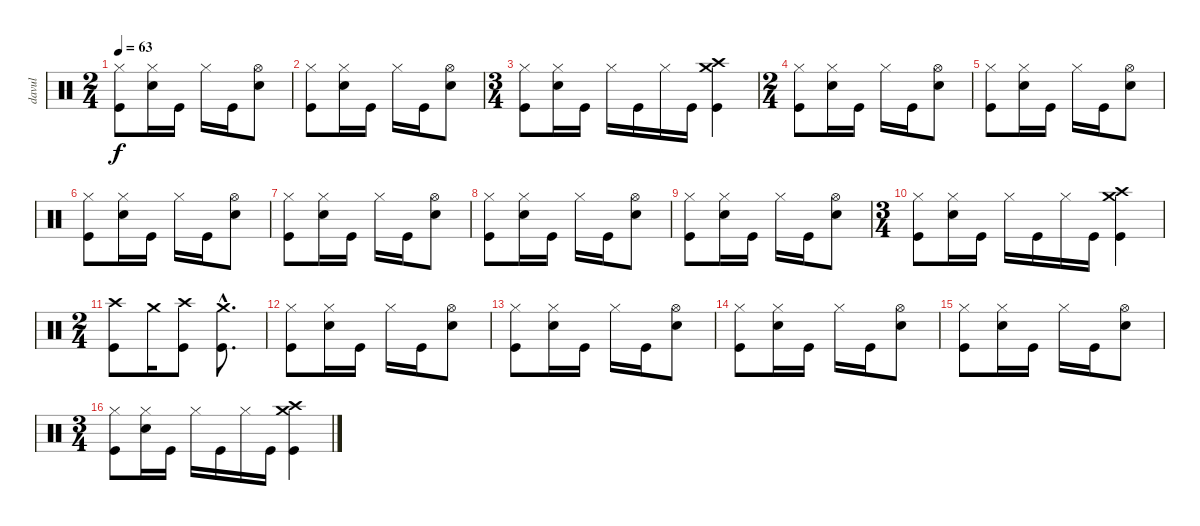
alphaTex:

\track ("davul" "davul") {instrument percussion}
\staff {score}
\articulation defaults
\ts (2 4)
\tempo 63
\clef neutral
\ks c
("Hi-Hat (closed)" "Kick (hit)").8{dy f} ("Hi-Hat (closed)" "Snare (hit) 2").16 "Kick (hit)".16 "Hi-Hat (closed)".16 "Kick (hit)".16 ("Hi-Hat (open)" "Snare (hit) 2").8 |
("Hi-Hat (closed)" "Kick (hit)").8 ("Hi-Hat (closed)" "Snare (hit) 2").16 "Kick (hit)".16 "Hi-Hat (closed)".16 "Kick (hit)".16 ("Hi-Hat (open)" "Snare (hit) 2").8 |
\ts (3 4)
("Hi-Hat (closed)" "Kick (hit)").8 ("Hi-Hat (closed)" "Snare (hit) 2").16 "Kick (hit)".16 "Hi-Hat (closed)".16 "Kick (hit)".16 "Hi-Hat (closed)".16 "Kick (hit)".16 ("Crash medium (hit)" "Crash high (hit)" "Kick (hit)").4 |
\ts (2 4)
("Hi-Hat (closed)" "Kick (hit)").8 ("Hi-Hat (closed)" "Snare (hit) 2").16 "Kick (hit)".16 "Hi-Hat (closed)".16 "Kick (hit)".16 ("Hi-Hat (open)" "Snare (hit) 2").8 |
("Hi-Hat (closed)" "Kick (hit)").8 ("Hi-Hat (closed)" "Snare (hit) 2").16 "Kick (hit)".16 "Hi-Hat (closed)".16 "Kick (hit)".16 ("Hi-Hat (open)" "Snare (hit) 2").8 |
("Hi-Hat (closed)" "Kick (hit)").8 ("Hi-Hat (closed)" "Snare (hit) 2").16 "Kick (hit)".16 "Hi-Hat (closed)".16 "Kick (hit)".16 ("Hi-Hat (open)" "Snare (hit) 2").8 |
("Hi-Hat (closed)" "Kick (hit)").8 ("Hi-Hat (closed)" "Snare (hit) 2").16 "Kick (hit)".16 "Hi-Hat (closed)".16 "Kick (hit)".16 ("Hi-Hat (open)" "Snare (hit) 2").8 |
("Hi-Hat (closed)" "Kick (hit)").8 ("Hi-Hat (closed)" "Snare (hit) 2").16 "Kick (hit)".16 "Hi-Hat (closed)".16 "Kick (hit)".16 ("Hi-Hat (open)" "Snare (hit) 2").8 |
("Hi-Hat (closed)" "Kick (hit)").8 ("Hi-Hat (closed)" "Snare (hit) 2").16 "Kick (hit)".16 "Hi-Hat (closed)".16 "Kick (hit)".16 ("Hi-Hat (open)" "Snare (hit) 2").8 |
\ts (3 4)
("Hi-Hat (closed)" "Kick (hit)").8 ("Hi-Hat (closed)" "Snare (hit) 2").16 "Kick (hit)".16 "Hi-Hat (closed)".16 "Kick (hit)".16 "Hi-Hat (closed)".16 "Kick (hit)".16 ("Crash medium (hit)" "Crash high (hit)" "Kick (hit)").4 |
\ts (2 4)
("Crash high (hit)" "Kick (hit)").8 "Crash medium (hit)".16 ("Crash high (hit)" "Kick (hit)").8 ("Crash medium (hit)"{hac} "Kick (hit)"{hac}).8{d} |
("Hi-Hat (closed)" "Kick (hit)").8 ("Hi-Hat (closed)" "Snare (hit) 2").16 "Kick (hit)".16 "Hi-Hat (closed)".16 "Kick (hit)".16 ("Hi-Hat (open)" "Snare (hit) 2").8 |
("Hi-Hat (closed)" "Kick (hit)").8 ("Hi-Hat (closed)" "Snare (hit) 2").16 "Kick (hit)".16 "Hi-Hat (closed)".16 "Kick (hit)".16 ("Hi-Hat (open)" "Snare (hit) 2").8 |
("Hi-Hat (closed)" "Kick (hit)").8 ("Hi-Hat (closed)" "Snare (hit) 2").16 "Kick (hit)".16 "Hi-Hat (closed)".16 "Kick (hit)".16 ("Hi-Hat (open)" "Snare (hit) 2").8 |
("Hi-Hat (closed)" "Kick (hit)").8 ("Hi-Hat (closed)" "Snare (hit) 2").16 "Kick (hit)".16 "Hi-Hat (closed)".16 "Kick (hit)".16 ("Hi-Hat (open)" "Snare (hit) 2").8 |
\ts (3 4)
("Hi-Hat (closed)" "Kick (hit)").8 ("Hi-Hat (closed)" "Snare (hit) 2").16 "Kick (hit)".16 "Hi-Hat (closed)".16 "Kick (hit)".16 "Hi-Hat (closed)".16 "Kick (hit)".16 ("Crash medium (hit)" "Crash high (hit)" "Kick (hit)").4
